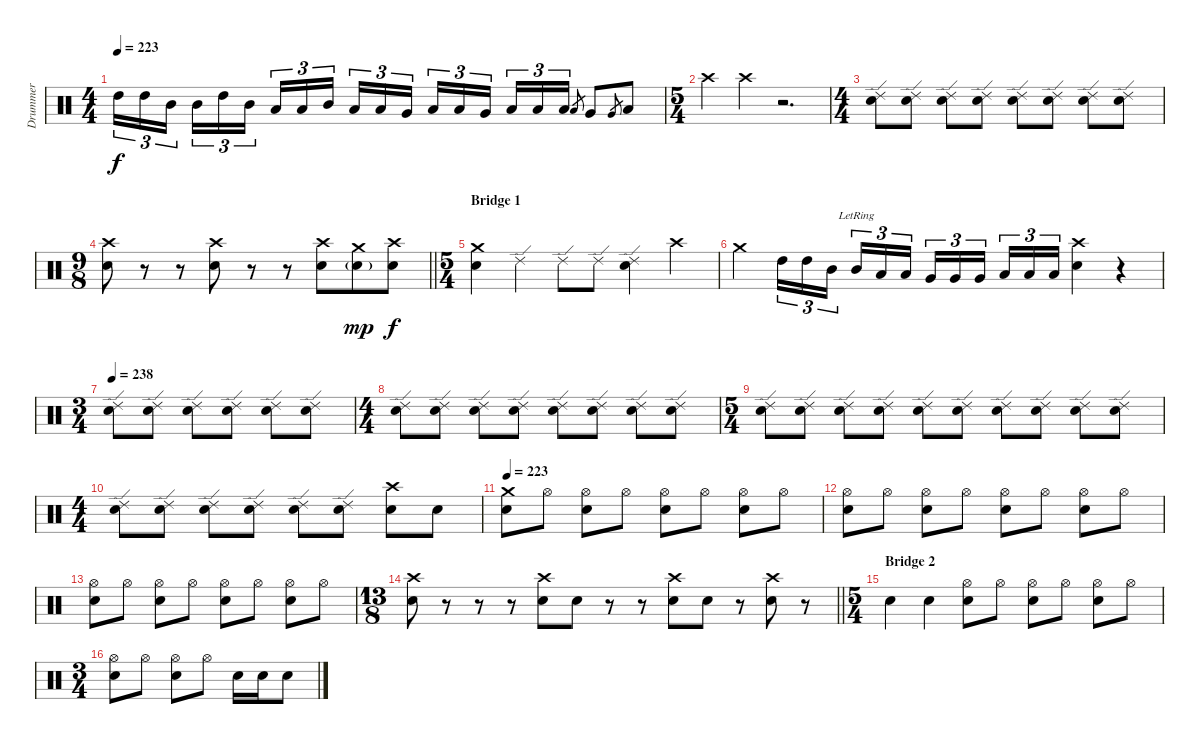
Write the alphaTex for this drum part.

\track ("Drummer" "Drummer") {instrument percussion}
\staff {score}
\articulation defaults
\ts (4 4)
\tempo 223
\clef neutral
\ks c "High Tom (hit)".16{tu (3 2) dy f} "High Tom (hit)".16{tu (3 2)} "Mid Tom (hit)".16{tu (3 2) beam splitsecondary} "Mid Tom (hit)".16{tu (3 2)} "High Tom (hit)".16{tu (3 2)} "Mid Tom (hit)".16{tu (3 2)} "Low Tom (hit)".16{tu (3 2)} "Low Tom (hit)".16{tu (3 2)} "Mid Tom (hit)".16{tu (3 2) beam splitsecondary} "Low Tom (hit)".16{tu (3 2)} "Low Tom (hit)".16{tu (3 2)} "Very Low Tom (hit)".16{tu (3 2)} "Low Tom (hit)".16{tu (3 2)} "Low Tom (hit)".16{tu (3 2)} "Very Low Tom (hit)".16{tu (3 2) beam splitsecondary} "Low Floor Tom (hit)".16{tu (3 2)} "Low Floor Tom (hit)".16{tu (3 2)} "Low Floor Tom (hit)".16{tu (3 2)} "Low Tom (hit)".8{gr} "Very Low Tom (hit)".8 "Very Low Tom (hit)".8{gr} "Low Floor Tom (hit)".8
|
\ts (5 4)
"Crash high (hit)".4 "Crash high (hit)".4 r.2{d} |
\ts (4 4)
("Ride (edge) 2" "Electric Snare (hit)").8 ("Ride (edge) 2" "Electric Snare (hit)").8 ("Ride (edge) 2" "Electric Snare (hit)").8 ("Ride (edge) 2" "Electric Snare (hit)").8 ("Ride (edge) 2" "Electric Snare (hit)").8 ("Ride (edge) 2" "Electric Snare (hit)").8 ("Ride (edge) 2" "Electric Snare (hit)").8 ("Ride (edge) 2" "Electric Snare (hit)").8 |
\ts (9 8)
\barLineRight lightlight
("Crash high (hit)" "Electric Snare (hit)").8 r.8 r.8 ("Crash high (hit)" "Electric Snare (hit)").8 r.8 r.8 ("Crash high (hit)" "Electric Snare (hit)").8 ("Crash medium (hit)" "Electric Snare (hit)"{g}).8{dy mp} ("Crash high (hit)" "Electric Snare (hit)").8{dy f} |
\ts (5 4)
\section ("" "Bridge 1")
("Crash medium (hit)" "Electric Snare (hit)").4 "Ride (edge) 2".4 "Ride (edge) 2".8 "Ride (edge) 2".8 ("Ride (edge) 2" "Electric Snare (hit)").4 "Crash high (hit)".4 |
"Crash medium (hit)".4 "High Tom (hit)".16{tu (3 2)} "High Tom (hit)".16{tu (3 2)} "Mid Tom (hit)".16{tu (3 2) beam splitsecondary} "Mid Tom (hit)"{lr}.16{tu (3 2)} "Low Tom (hit)".16{tu (3 2)} "Low Tom (hit)".16{tu (3 2)} "Very Low Tom (hit)".16{tu (3 2)} "Very Low Tom (hit)".16{tu (3 2)} "Very Low Tom (hit)".16{tu (3 2) beam splitsecondary} "Low Floor Tom (hit)".16{tu (3 2)} "Low Floor Tom (hit)".16{tu (3 2)} "Low Floor Tom (hit)".16{tu (3 2)} ("Crash high (hit)" "Electric Snare (hit)").4 r.4 |
\ts (3 4)
\tempo 238
("Ride (edge) 2" "Electric Snare (hit)").8 ("Ride (edge) 2" "Electric Snare (hit)").8 ("Ride (edge) 2" "Electric Snare (hit)").8 ("Ride (edge) 2" "Electric Snare (hit)").8 ("Ride (edge) 2" "Electric Snare (hit)").8 ("Ride (edge) 2" "Electric Snare (hit)").8 |
\ts (4 4)
("Ride (edge) 2" "Electric Snare (hit)").8 ("Ride (edge) 2" "Electric Snare (hit)").8 ("Ride (edge) 2" "Electric Snare (hit)").8 ("Ride (edge) 2" "Electric Snare (hit)").8 ("Ride (edge) 2" "Electric Snare (hit)").8 ("Ride (edge) 2" "Electric Snare (hit)").8 ("Ride (edge) 2" "Electric Snare (hit)").8 ("Ride (edge) 2" "Electric Snare (hit)").8 |
\ts (5 4)
("Ride (edge) 2" "Electric Snare (hit)").8 ("Ride (edge) 2" "Electric Snare (hit)").8 ("Ride (edge) 2" "Electric Snare (hit)").8 ("Ride (edge) 2" "Electric Snare (hit)").8 ("Ride (edge) 2" "Electric Snare (hit)").8 ("Ride (edge) 2" "Electric Snare (hit)").8 ("Ride (edge) 2" "Electric Snare (hit)").8 ("Ride (edge) 2" "Electric Snare (hit)").8 ("Ride (edge) 2" "Electric Snare (hit)").8 ("Ride (edge) 2" "Electric Snare (hit)").8 |
\ts (4 4)
("Ride (edge) 2" "Electric Snare (hit)").8 ("Ride (edge) 2" "Electric Snare (hit)").8 ("Ride (edge) 2" "Electric Snare (hit)").8 ("Ride (edge) 2" "Electric Snare (hit)").8 ("Ride (edge) 2" "Electric Snare (hit)").8 ("Ride (edge) 2" "Electric Snare (hit)").8 ("Crash high (hit)" "Electric Snare (hit)").8 "Electric Snare (hit)".8 |
\tempo 223
("Crash medium (hit)" "Electric Snare (hit)").8 "Hi-Hat (open)".8 ("Hi-Hat (open)" "Electric Snare (hit)").8 "Hi-Hat (open)".8 ("Hi-Hat (open)" "Electric Snare (hit)").8 "Hi-Hat (open)".8 ("Hi-Hat (open)" "Electric Snare (hit)").8 "Hi-Hat (open)".8 |
("Hi-Hat (open)" "Electric Snare (hit)").8 "Hi-Hat (open)".8 ("Hi-Hat (open)" "Electric Snare (hit)").8 "Hi-Hat (open)".8 ("Hi-Hat (open)" "Electric Snare (hit)").8 "Hi-Hat (open)".8 ("Hi-Hat (open)" "Electric Snare (hit)").8 "Hi-Hat (open)".8 |
("Hi-Hat (open)" "Electric Snare (hit)").8 "Hi-Hat (open)".8 ("Hi-Hat (open)" "Electric Snare (hit)").8 "Hi-Hat (open)".8 ("Hi-Hat (open)" "Electric Snare (hit)").8 "Hi-Hat (open)".8 ("Hi-Hat (open)" "Electric Snare (hit)").8 "Hi-Hat (open)".8 |
\ts (13 8)
\barLineRight lightlight
("Crash high (hit)" "Electric Snare (hit)").8 r.8 r.8 r.8 ("Crash high (hit)" "Electric Snare (hit)").8 "Electric Snare (hit)".8 r.8 r.8 ("Crash high (hit)" "Electric Snare (hit)").8 "Electric Snare (hit)".8 r.8 ("Crash high (hit)" "Electric Snare (hit)").8 r.8 |
\ts (5 4)
\section ("" "Bridge 2")
"Electric Snare (hit)".4 "Electric Snare (hit)".4 ("Hi-Hat (open)" "Electric Snare (hit)").8 "Hi-Hat (open)".8 ("Hi-Hat (open)" "Electric Snare (hit)").8 "Hi-Hat (open)".8 ("Hi-Hat (open)" "Electric Snare (hit)").8 "Hi-Hat (open)".8 |
\ts (3 4)
("Hi-Hat (open)" "Electric Snare (hit)").8 "Hi-Hat (open)".8 ("Hi-Hat (open)" "Electric Snare (hit)").8 "Hi-Hat (open)".8 "Electric Snare (hit)".16 "Electric Snare (hit)".16 "Electric Snare (hit)".8
